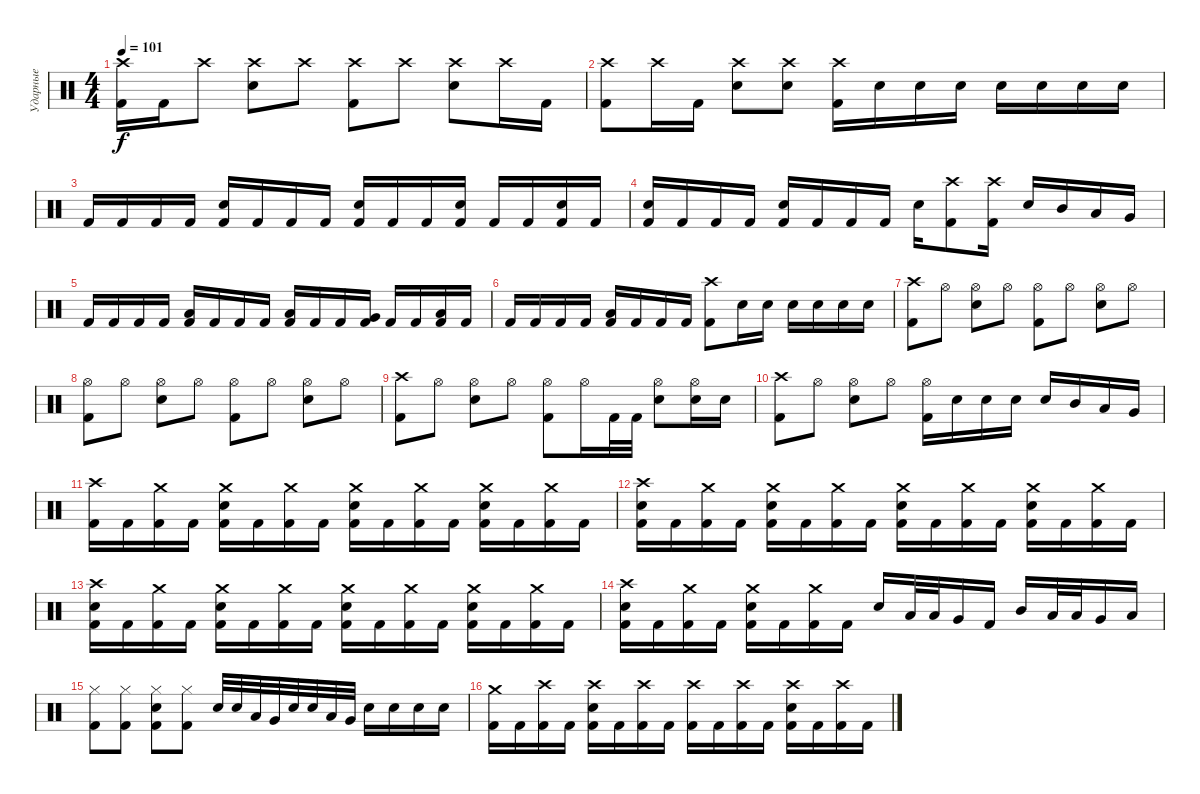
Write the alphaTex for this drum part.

\track ("Ударные" "Ударные") {instrument percussion}
\staff {score}
\articulation defaults
\ts (4 4)
\tempo 101
\clef neutral
\ks c
("Crash high (hit)" "Kick (hit) 2").16{dy f} "Kick (hit) 2".16 "Crash high (hit)".8 ("Crash high (hit)" "Electric Snare (hit)").8 "Crash high (hit)".8 ("Crash high (hit)" "Kick (hit) 2").8 "Crash high (hit)".8 ("Crash high (hit)" "Electric Snare (hit)").8 "Crash high (hit)".16 "Kick (hit) 2".16 |
("Crash high (hit)" "Kick (hit) 2").8 "Crash high (hit)".16 "Kick (hit) 2".16 ("Crash high (hit)" "Electric Snare (hit)").8 ("Crash high (hit)" "Electric Snare (hit)").8 ("Crash high (hit)" "Kick (hit) 2").16 "Electric Snare (hit)".16 "Electric Snare (hit)".16 "Electric Snare (hit)".16 "Electric Snare (hit)".16 "Electric Snare (hit)".16 "Electric Snare (hit)".16 "Electric Snare (hit)".16 |
"Kick (hit) 2".16 "Kick (hit) 2".16 "Kick (hit) 2".16 "Kick (hit) 2".16 ("Electric Snare (hit)" "Kick (hit) 2").16 "Kick (hit) 2".16 "Kick (hit) 2".16 "Kick (hit) 2".16 ("Electric Snare (hit)" "Kick (hit) 2").16 "Kick (hit) 2".16 "Kick (hit) 2".16 ("Electric Snare (hit)" "Kick (hit) 2").16 "Kick (hit) 2".16 "Kick (hit) 2".16 ("Electric Snare (hit)" "Kick (hit) 2").16 "Kick (hit) 2".16 |
("Electric Snare (hit)" "Kick (hit) 2").16 "Kick (hit) 2".16 "Kick (hit) 2".16 "Kick (hit) 2".16 ("Electric Snare (hit)" "Kick (hit) 2").16 "Kick (hit) 2".16 "Kick (hit) 2".16 "Kick (hit) 2".16 "Electric Snare (hit)".16 ("Crash high (hit)" "Kick (hit) 2").8 ("Crash high (hit)" "Kick (hit) 2").16 "Electric Snare (hit)".16 "Mid Tom (hit)".16 "Low Tom (hit)".16 "Very Low Tom (hit)".16 |
"Kick (hit) 2".16 "Kick (hit) 2".16 "Kick (hit) 2".16 "Kick (hit) 2".16 ("Low Tom (hit)" "Kick (hit) 2").16 "Kick (hit) 2".16 "Kick (hit) 2".16 "Kick (hit) 2".16 ("Low Tom (hit)" "Kick (hit) 2").16 "Kick (hit) 2".16 "Kick (hit) 2".16 ("Very Low Tom (hit)" "Kick (hit) 2").16 "Kick (hit) 2".16 "Kick (hit) 2".16 ("Low Floor Tom (hit)" "Kick (hit) 2").16 "Kick (hit) 2".16 |
"Kick (hit) 2".16 "Kick (hit) 2".16 "Kick (hit) 2".16 "Kick (hit) 2".16 ("Low Tom (hit)" "Kick (hit) 2").16 "Kick (hit) 2".16 "Kick (hit) 2".16 "Kick (hit) 2".16 ("Crash high (hit)" "Kick (hit) 2").8 "Electric Snare (hit)".16 "Electric Snare (hit)".16 "Electric Snare (hit)".16 "Electric Snare (hit)".16 "Electric Snare (hit)".16 "Electric Snare (hit)".16 |
("Crash high (hit)" "Kick (hit) 2").8 "Hi-Hat (open)".8 ("Hi-Hat (open)" "Electric Snare (hit)").8 "Hi-Hat (open)".8 ("Hi-Hat (open)" "Kick (hit) 2").8 "Hi-Hat (open)".8 ("Hi-Hat (open)" "Electric Snare (hit)").8 "Hi-Hat (open)".8 |
("Hi-Hat (open)" "Kick (hit) 2").8 "Hi-Hat (open)".8 ("Hi-Hat (open)" "Electric Snare (hit)").8 "Hi-Hat (open)".8 ("Hi-Hat (open)" "Kick (hit) 2").8 "Hi-Hat (open)".8 ("Hi-Hat (open)" "Electric Snare (hit)").8 "Hi-Hat (open)".8 |
("Crash high (hit)" "Kick (hit) 2").8 "Hi-Hat (open)".8 ("Hi-Hat (open)" "Electric Snare (hit)").8 "Hi-Hat (open)".8 ("Hi-Hat (open)" "Kick (hit) 2").8 "Hi-Hat (open)".16 "Kick (hit) 2".32 "Kick (hit) 2".32 ("Hi-Hat (open)" "Electric Snare (hit)").8 ("Hi-Hat (open)" "Electric Snare (hit)").16 "Electric Snare (hit)".16 |
("Crash high (hit)" "Kick (hit) 2").8 "Hi-Hat (open)".8 ("Hi-Hat (open)" "Electric Snare (hit)").8 "Hi-Hat (open)".8 ("Hi-Hat (open)" "Kick (hit) 2").16 "Electric Snare (hit)".16 "Electric Snare (hit)".16 "Electric Snare (hit)".16 "Electric Snare (hit)".16 "Mid Tom (hit)".16 "Low Tom (hit)".16 "Very Low Tom (hit)".16 |
("Crash high (hit)" "Kick (hit) 2").16 "Kick (hit) 2".16 ("Crash medium (hit)" "Kick (hit) 2").16 "Kick (hit) 2".16 ("Crash medium (hit)" "Electric Snare (hit)" "Kick (hit) 2").16 "Kick (hit) 2".16 ("Crash medium (hit)" "Kick (hit) 2").16 "Kick (hit) 2".16 ("Crash medium (hit)" "Electric Snare (hit)" "Kick (hit) 2").16 "Kick (hit) 2".16 ("Crash medium (hit)" "Kick (hit) 2").16 "Kick (hit) 2".16 ("Crash medium (hit)" "Electric Snare (hit)" "Kick (hit) 2").16 "Kick (hit) 2".16 ("Crash medium (hit)" "Kick (hit) 2").16 "Kick (hit) 2".16 |
("Crash high (hit)" "Electric Snare (hit)" "Kick (hit) 2").16 "Kick (hit) 2".16 ("Crash medium (hit)" "Kick (hit) 2").16 "Kick (hit) 2".16 ("Crash medium (hit)" "Electric Snare (hit)" "Kick (hit) 2").16 "Kick (hit) 2".16 ("Crash medium (hit)" "Kick (hit) 2").16 "Kick (hit) 2".16 ("Crash medium (hit)" "Electric Snare (hit)" "Kick (hit) 2").16 "Kick (hit) 2".16 ("Crash medium (hit)" "Kick (hit) 2").16 "Kick (hit) 2".16 ("Crash medium (hit)" "Electric Snare (hit)" "Kick (hit) 2").16 "Kick (hit) 2".16 ("Crash medium (hit)" "Kick (hit) 2").16 "Kick (hit) 2".16 |
("Crash high (hit)" "Electric Snare (hit)" "Kick (hit) 2").16 "Kick (hit) 2".16 ("Crash medium (hit)" "Kick (hit) 2").16 "Kick (hit) 2".16 ("Crash medium (hit)" "Electric Snare (hit)" "Kick (hit) 2").16 "Kick (hit) 2".16 ("Crash medium (hit)" "Kick (hit) 2").16 "Kick (hit) 2".16 ("Crash medium (hit)" "Electric Snare (hit)" "Kick (hit) 2").16 "Kick (hit) 2".16 ("Crash medium (hit)" "Kick (hit) 2").16 "Kick (hit) 2".16 ("Crash medium (hit)" "Electric Snare (hit)" "Kick (hit) 2").16 "Kick (hit) 2".16 ("Crash medium (hit)" "Kick (hit) 2").16 "Kick (hit) 2".16 |
("Crash high (hit)" "Electric Snare (hit)" "Kick (hit) 2").16 "Kick (hit) 2".16 ("Crash medium (hit)" "Kick (hit) 2").16 "Kick (hit) 2".16 ("Crash medium (hit)" "Electric Snare (hit)" "Kick (hit) 2").16 "Kick (hit) 2".16 ("Crash medium (hit)" "Kick (hit) 2").16 "Kick (hit) 2".16 "Electric Snare (hit)".16 "Low Tom (hit)".32 "Low Tom (hit)".32 "Very Low Tom (hit)".16 "Kick (hit) 2".16 "Mid Tom (hit)".16 "Low Tom (hit)".32 "Low Tom (hit)".32 "Very Low Tom (hit)".16 "Low Floor Tom (hit)".16 |
("Hi-Hat (closed)" "Kick (hit) 2").8 ("Hi-Hat (closed)" "Kick (hit) 2").8 ("Hi-Hat (closed)" "Electric Snare (hit)" "Kick (hit) 2").8 ("Hi-Hat (closed)" "Kick (hit) 2").8 "Electric Snare (hit)".32 "Electric Snare (hit)".32 "Low Tom (hit)".32 "Very Low Tom (hit)".32 "Electric Snare (hit)".32 "Electric Snare (hit)".32 "Low Tom (hit)".32 "Very Low Tom (hit)".32 "Electric Snare (hit)".16 "Electric Snare (hit)".16 "Electric Snare (hit)".16 "Electric Snare (hit)".16 |
("Crash medium (hit)" "Kick (hit) 2").16 "Kick (hit) 2".16 ("Crash high (hit)" "Kick (hit) 2").16 "Kick (hit) 2".16 ("Crash high (hit)" "Electric Snare (hit)" "Kick (hit) 2").16 "Kick (hit) 2".16 ("Crash high (hit)" "Kick (hit) 2").16 "Kick (hit) 2".16 ("Crash high (hit)" "Kick (hit) 2").16 "Kick (hit) 2".16 ("Crash high (hit)" "Kick (hit) 2").16 "Kick (hit) 2".16 ("Crash high (hit)" "Electric Snare (hit)" "Kick (hit) 2").16 "Kick (hit) 2".16 ("Crash high (hit)" "Kick (hit) 2").16 "Kick (hit) 2".16
